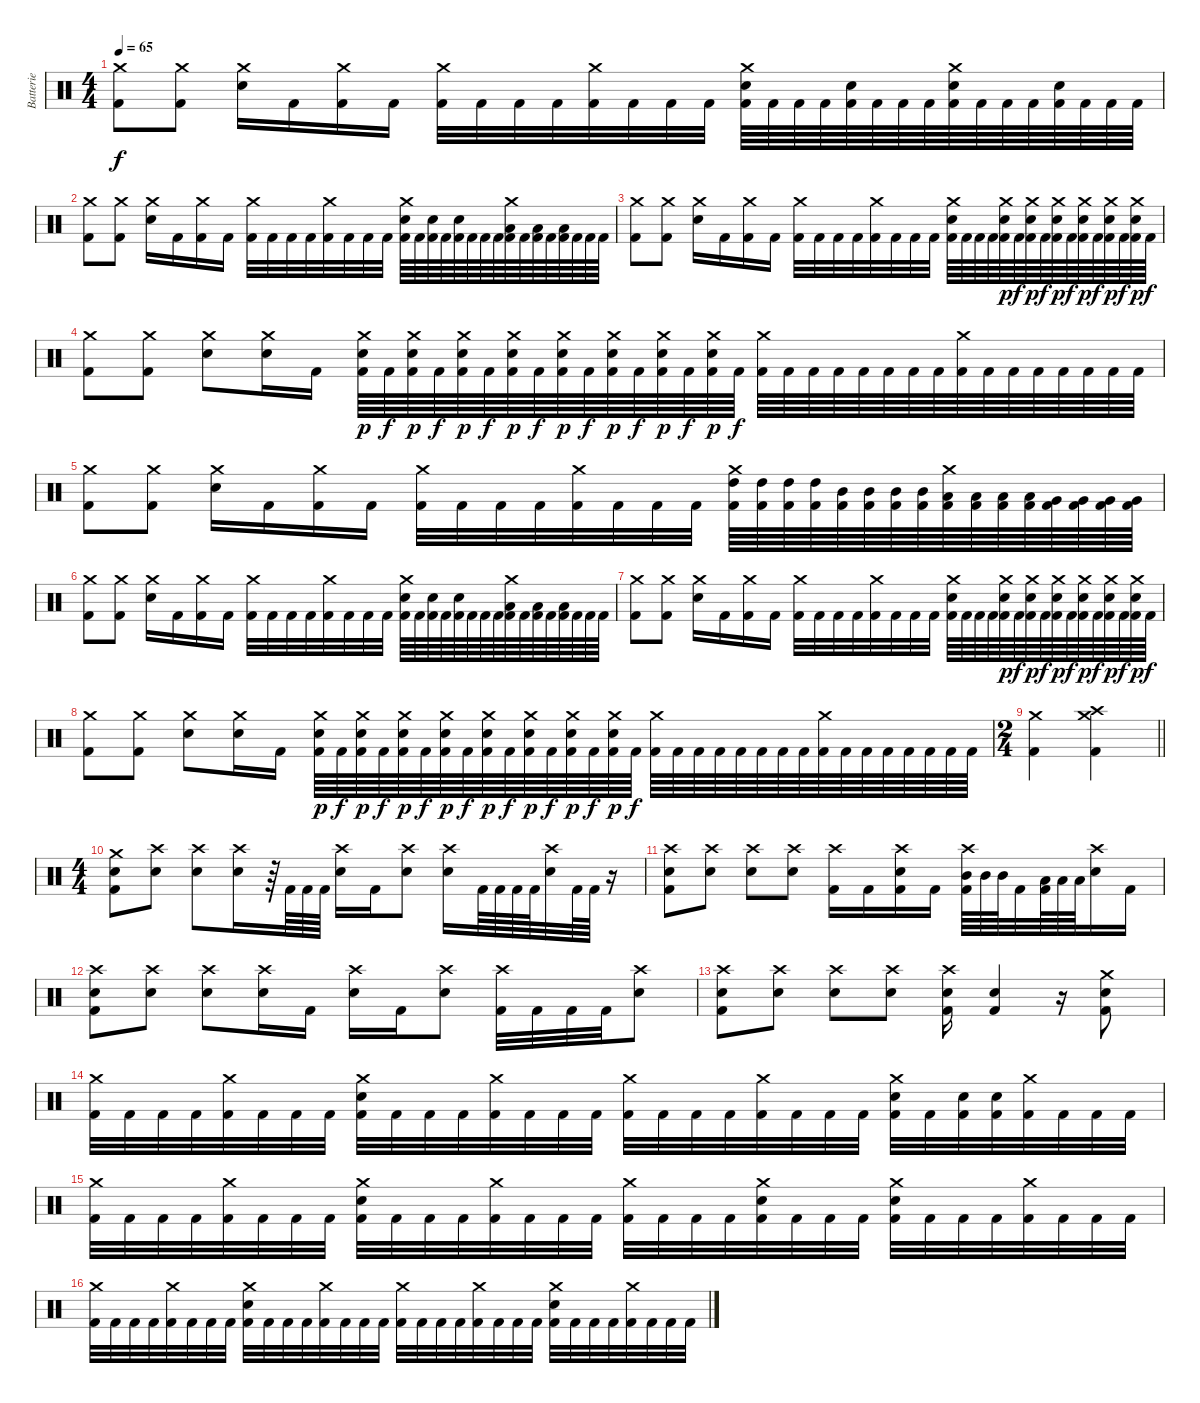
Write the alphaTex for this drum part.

\track ("Batterie" "Batterie") {instrument percussion}
\staff {score}
\articulation defaults
\ts (4 4)
\section ("" "")
\tempo 65
\clef neutral
\ks c
("Crash medium (hit)" "Kick (hit) 2").8{dy f} ("Crash medium (hit)" "Kick (hit) 2").8 ("Crash medium (hit)" "Electric Snare (hit)").16 "Kick (hit) 2".16 ("Crash medium (hit)" "Kick (hit) 2").16 "Kick (hit) 2".16 ("Crash medium (hit)" "Kick (hit) 2").32 "Kick (hit) 2".32 "Kick (hit) 2".32 "Kick (hit) 2".32 ("Crash medium (hit)" "Kick (hit) 2").32 "Kick (hit) 2".32 "Kick (hit) 2".32 "Kick (hit) 2".32 ("Crash medium (hit)" "Electric Snare (hit)" "Kick (hit) 2").64 "Kick (hit) 2".64 "Kick (hit) 2".64 "Kick (hit) 2".64 ("Electric Snare (hit)" "Kick (hit) 2").64 "Kick (hit) 2".64 "Kick (hit) 2".64 "Kick (hit) 2".64 ("Crash medium (hit)" "Electric Snare (hit)" "Kick (hit) 2").64 "Kick (hit) 2".64 "Kick (hit) 2".64 "Kick (hit) 2".64 ("Electric Snare (hit)" "Kick (hit) 2").64 "Kick (hit) 2".64 "Kick (hit) 2".64 "Kick (hit) 2".64 |
("Crash medium (hit)" "Kick (hit) 2").8 ("Crash medium (hit)" "Kick (hit) 2").8 ("Crash medium (hit)" "Electric Snare (hit)").16 "Kick (hit) 2".16 ("Crash medium (hit)" "Kick (hit) 2").16 "Kick (hit) 2".16 ("Crash medium (hit)" "Kick (hit) 2").32 "Kick (hit) 2".32 "Kick (hit) 2".32 "Kick (hit) 2".32 ("Crash medium (hit)" "Kick (hit) 2").32 "Kick (hit) 2".32 "Kick (hit) 2".32 "Kick (hit) 2".32 ("Crash medium (hit)" "Electric Snare (hit)" "Kick (hit) 2").64 "Kick (hit) 2".64 ("Electric Snare (hit)" "Kick (hit) 2").64 "Kick (hit) 2".64 ("Electric Snare (hit)" "Kick (hit) 2").64 "Kick (hit) 2".64 "Kick (hit) 2".64 "Kick (hit) 2".64 ("Crash medium (hit)" "Low Tom (hit)" "Kick (hit) 2").64 "Kick (hit) 2".64 ("Low Tom (hit)" "Kick (hit) 2").64 "Kick (hit) 2".64 ("Low Tom (hit)" "Kick (hit) 2").64 "Kick (hit) 2".64 "Kick (hit) 2".64 "Kick (hit) 2".64 |
("Crash medium (hit)" "Kick (hit) 2").8 ("Crash medium (hit)" "Kick (hit) 2").8 ("Crash medium (hit)" "Electric Snare (hit)").16 "Kick (hit) 2".16 ("Crash medium (hit)" "Kick (hit) 2").16 "Kick (hit) 2".16 ("Crash medium (hit)" "Kick (hit) 2").32 "Kick (hit) 2".32 "Kick (hit) 2".32 "Kick (hit) 2".32 ("Crash medium (hit)" "Kick (hit) 2").32 "Kick (hit) 2".32 "Kick (hit) 2".32 "Kick (hit) 2".32 ("Crash medium (hit)" "Electric Snare (hit)" "Kick (hit) 2").64 "Kick (hit) 2".64 "Kick (hit) 2".64 "Kick (hit) 2".64 ("Crash medium (hit)" "Electric Snare (hit)" "Kick (hit) 2").64{dy p} "Kick (hit) 2".64{dy f} ("Crash medium (hit)" "Electric Snare (hit)" "Kick (hit) 2").64{dy p} "Kick (hit) 2".64{dy f} ("Crash medium (hit)" "Electric Snare (hit)" "Kick (hit) 2").64{dy p} "Kick (hit) 2".64{dy f} ("Crash medium (hit)" "Electric Snare (hit)" "Kick (hit) 2").64{dy p} "Kick (hit) 2".64{dy f} ("Crash medium (hit)" "Electric Snare (hit)" "Kick (hit) 2").64{dy p} "Kick (hit) 2".64{dy f} ("Crash medium (hit)" "Electric Snare (hit)" "Kick (hit) 2").64{dy p} "Kick (hit) 2".64{dy f} |
("Crash medium (hit)" "Kick (hit) 2").8 ("Crash medium (hit)" "Kick (hit) 2").8 ("Crash medium (hit)" "Electric Snare (hit)").8 ("Crash medium (hit)" "Electric Snare (hit)").16 "Kick (hit) 2".16 ("Crash medium (hit)" "Electric Snare (hit)" "Kick (hit) 2").64{dy p} "Kick (hit) 2".64{dy f} ("Crash medium (hit)" "Electric Snare (hit)" "Kick (hit) 2").64{dy p} "Kick (hit) 2".64{dy f} ("Crash medium (hit)" "Electric Snare (hit)" "Kick (hit) 2").64{dy p} "Kick (hit) 2".64{dy f} ("Crash medium (hit)" "Electric Snare (hit)" "Kick (hit) 2").64{dy p} "Kick (hit) 2".64{dy f} ("Crash medium (hit)" "Electric Snare (hit)" "Kick (hit) 2").64{dy p} "Kick (hit) 2".64{dy f} ("Crash medium (hit)" "Electric Snare (hit)" "Kick (hit) 2").64{dy p} "Kick (hit) 2".64{dy f} ("Crash medium (hit)" "Electric Snare (hit)" "Kick (hit) 2").64{dy p} "Kick (hit) 2".64{dy f} ("Crash medium (hit)" "Electric Snare (hit)" "Kick (hit) 2").64{dy p} "Kick (hit) 2".64{dy f} ("Crash medium (hit)" "Kick (hit) 2").64 "Kick (hit) 2".64 "Kick (hit) 2".64 "Kick (hit) 2".64 "Kick (hit) 2".64 "Kick (hit) 2".64 "Kick (hit) 2".64 "Kick (hit) 2".64 ("Crash medium (hit)" "Kick (hit) 2").64 "Kick (hit) 2".64 "Kick (hit) 2".64 "Kick (hit) 2".64 "Kick (hit) 2".64 "Kick (hit) 2".64 "Kick (hit) 2".64 "Kick (hit) 2".64 |
("Crash medium (hit)" "Kick (hit) 2").8 ("Crash medium (hit)" "Kick (hit) 2").8 ("Crash medium (hit)" "Electric Snare (hit)").16 "Kick (hit) 2".16 ("Crash medium (hit)" "Kick (hit) 2").16 "Kick (hit) 2".16 ("Crash medium (hit)" "Kick (hit) 2").32 "Kick (hit) 2".32 "Kick (hit) 2".32 "Kick (hit) 2".32 ("Crash medium (hit)" "Kick (hit) 2").32 "Kick (hit) 2".32 "Kick (hit) 2".32 "Kick (hit) 2".32 ("Crash medium (hit)" "High Tom (hit)" "Kick (hit) 2").64 ("High Tom (hit)" "Kick (hit) 2").64 ("High Tom (hit)" "Kick (hit) 2").64 ("High Tom (hit)" "Kick (hit) 2").64 ("Mid Tom (hit)" "Kick (hit) 2").64 ("Mid Tom (hit)" "Kick (hit) 2").64 ("Mid Tom (hit)" "Kick (hit) 2").64 ("Mid Tom (hit)" "Kick (hit) 2").64 ("Crash medium (hit)" "Low Tom (hit)" "Kick (hit) 2").64 ("Low Tom (hit)" "Kick (hit) 2").64 ("Low Tom (hit)" "Kick (hit) 2").64 ("Low Tom (hit)" "Kick (hit) 2").64 ("Very Low Tom (hit)" "Kick (hit) 2").64 ("Very Low Tom (hit)" "Kick (hit) 2").64 ("Very Low Tom (hit)" "Kick (hit) 2").64 ("Very Low Tom (hit)" "Kick (hit) 2").64 |
("Crash medium (hit)" "Kick (hit) 2").8 ("Crash medium (hit)" "Kick (hit) 2").8 ("Crash medium (hit)" "Electric Snare (hit)").16 "Kick (hit) 2".16 ("Crash medium (hit)" "Kick (hit) 2").16 "Kick (hit) 2".16 ("Crash medium (hit)" "Kick (hit) 2").32 "Kick (hit) 2".32 "Kick (hit) 2".32 "Kick (hit) 2".32 ("Crash medium (hit)" "Kick (hit) 2").32 "Kick (hit) 2".32 "Kick (hit) 2".32 "Kick (hit) 2".32 ("Crash medium (hit)" "Electric Snare (hit)" "Kick (hit) 2").64 "Kick (hit) 2".64 ("Electric Snare (hit)" "Kick (hit) 2").64 "Kick (hit) 2".64 ("Electric Snare (hit)" "Kick (hit) 2").64 "Kick (hit) 2".64 "Kick (hit) 2".64 "Kick (hit) 2".64 ("Crash medium (hit)" "Low Tom (hit)" "Kick (hit) 2").64 "Kick (hit) 2".64 ("Low Tom (hit)" "Kick (hit) 2").64 "Kick (hit) 2".64 ("Low Tom (hit)" "Kick (hit) 2").64 "Kick (hit) 2".64 "Kick (hit) 2".64 "Kick (hit) 2".64 |
("Crash medium (hit)" "Kick (hit) 2").8 ("Crash medium (hit)" "Kick (hit) 2").8 ("Crash medium (hit)" "Electric Snare (hit)").16 "Kick (hit) 2".16 ("Crash medium (hit)" "Kick (hit) 2").16 "Kick (hit) 2".16 ("Crash medium (hit)" "Kick (hit) 2").32 "Kick (hit) 2".32 "Kick (hit) 2".32 "Kick (hit) 2".32 ("Crash medium (hit)" "Kick (hit) 2").32 "Kick (hit) 2".32 "Kick (hit) 2".32 "Kick (hit) 2".32 ("Crash medium (hit)" "Electric Snare (hit)" "Kick (hit) 2").64 "Kick (hit) 2".64 "Kick (hit) 2".64 "Kick (hit) 2".64 ("Crash medium (hit)" "Electric Snare (hit)" "Kick (hit) 2").64{dy p} "Kick (hit) 2".64{dy f} ("Crash medium (hit)" "Electric Snare (hit)" "Kick (hit) 2").64{dy p} "Kick (hit) 2".64{dy f} ("Crash medium (hit)" "Electric Snare (hit)" "Kick (hit) 2").64{dy p} "Kick (hit) 2".64{dy f} ("Crash medium (hit)" "Electric Snare (hit)" "Kick (hit) 2").64{dy p} "Kick (hit) 2".64{dy f} ("Crash medium (hit)" "Electric Snare (hit)" "Kick (hit) 2").64{dy p} "Kick (hit) 2".64{dy f} ("Crash medium (hit)" "Electric Snare (hit)" "Kick (hit) 2").64{dy p} "Kick (hit) 2".64{dy f} |
("Crash medium (hit)" "Kick (hit) 2").8 ("Crash medium (hit)" "Kick (hit) 2").8 ("Crash medium (hit)" "Electric Snare (hit)").8 ("Crash medium (hit)" "Electric Snare (hit)").16 "Kick (hit) 2".16 ("Crash medium (hit)" "Electric Snare (hit)" "Kick (hit) 2").64{dy p} "Kick (hit) 2".64{dy f} ("Crash medium (hit)" "Electric Snare (hit)" "Kick (hit) 2").64{dy p} "Kick (hit) 2".64{dy f} ("Crash medium (hit)" "Electric Snare (hit)" "Kick (hit) 2").64{dy p} "Kick (hit) 2".64{dy f} ("Crash medium (hit)" "Electric Snare (hit)" "Kick (hit) 2").64{dy p} "Kick (hit) 2".64{dy f} ("Crash medium (hit)" "Electric Snare (hit)" "Kick (hit) 2").64{dy p} "Kick (hit) 2".64{dy f} ("Crash medium (hit)" "Electric Snare (hit)" "Kick (hit) 2").64{dy p} "Kick (hit) 2".64{dy f} ("Crash medium (hit)" "Electric Snare (hit)" "Kick (hit) 2").64{dy p} "Kick (hit) 2".64{dy f} ("Crash medium (hit)" "Electric Snare (hit)" "Kick (hit) 2").64{dy p} "Kick (hit) 2".64{dy f} ("Crash medium (hit)" "Kick (hit) 2").64 "Kick (hit) 2".64 "Kick (hit) 2".64 "Kick (hit) 2".64 "Kick (hit) 2".64 "Kick (hit) 2".64 "Kick (hit) 2".64 "Kick (hit) 2".64 ("Crash medium (hit)" "Kick (hit) 2").64 "Kick (hit) 2".64 "Kick (hit) 2".64 "Kick (hit) 2".64 "Kick (hit) 2".64 "Kick (hit) 2".64 "Kick (hit) 2".64 "Kick (hit) 2".64 |
\ts (2 4)
\barLineRight lightlight
("Crash medium (hit)" "Kick (hit) 2").4 ("Crash medium (hit)" "Crash high (hit)" "Kick (hit) 2").4 |
\ts (4 4)
\section ("" "")
("Crash medium (hit)" "Electric Snare (hit)" "Kick (hit) 2").8 ("Crash high (hit)" "Electric Snare (hit)").8 ("Crash high (hit)" "Electric Snare (hit)").8 ("Crash high (hit)" "Electric Snare (hit)").16 r.64 "Kick (hit) 2".64 "Kick (hit) 2".64 "Kick (hit) 2".64 ("Crash high (hit)" "Electric Snare (hit)").16 "Kick (hit) 2".16 ("Crash high (hit)" "Electric Snare (hit)").8 ("Crash high (hit)" "Electric Snare (hit)").16 "Kick (hit) 2".64 "Kick (hit) 2".64 "Kick (hit) 2".64 "Kick (hit) 2".64 ("Crash high (hit)" "Electric Snare (hit)").32 "Kick (hit) 2".64 "Kick (hit) 2".64 r.16 |
("Crash high (hit)" "Electric Snare (hit)" "Kick (hit) 2").8 ("Crash high (hit)" "Electric Snare (hit)").8 ("Crash high (hit)" "Electric Snare (hit)").8 ("Crash high (hit)" "Electric Snare (hit)").8 ("Crash high (hit)" "Kick (hit) 2").16 "Kick (hit) 2".16 ("Crash high (hit)" "Electric Snare (hit)" "Kick (hit) 2").16 "Kick (hit) 2".16 ("Crash high (hit)" "Mid Tom (hit)" "Kick (hit) 2").64 "Mid Tom (hit)".64 "Mid Tom (hit)".64 "Kick (hit) 2".32 ("Low Tom (hit)" "Kick (hit) 2").64 "Low Tom (hit)".64 "Low Tom (hit)".64 ("Crash high (hit)" "Electric Snare (hit)").16 "Kick (hit) 2".16 |
("Crash high (hit)" "Electric Snare (hit)" "Kick (hit) 2").8 ("Crash high (hit)" "Electric Snare (hit)").8 ("Crash high (hit)" "Electric Snare (hit)").8 ("Crash high (hit)" "Electric Snare (hit)").16 "Kick (hit) 2".16 ("Crash high (hit)" "Electric Snare (hit)").16 "Kick (hit) 2".16 ("Crash high (hit)" "Electric Snare (hit)").8 ("Crash high (hit)" "Kick (hit) 2").32 "Kick (hit) 2".32 "Kick (hit) 2".32 "Kick (hit) 2".32 ("Crash high (hit)" "Electric Snare (hit)").8 |
("Crash high (hit)" "Electric Snare (hit)" "Kick (hit) 2").8 ("Crash high (hit)" "Electric Snare (hit)").8 ("Crash high (hit)" "Electric Snare (hit)").8 ("Crash high (hit)" "Electric Snare (hit)").8 ("Crash high (hit)" "Electric Snare (hit)" "Kick (hit) 2").16 ("Electric Snare (hit)" "Kick (hit) 2").4 r.16 ("Crash medium (hit)" "Electric Snare (hit)" "Kick (hit) 2").8 |
("Crash medium (hit)" "Kick (hit) 2").32 "Kick (hit) 2".32 "Kick (hit) 2".32 "Kick (hit) 2".32 ("Crash medium (hit)" "Kick (hit) 2").32 "Kick (hit) 2".32 "Kick (hit) 2".32 "Kick (hit) 2".32 ("Crash medium (hit)" "Electric Snare (hit)" "Kick (hit) 2").32 "Kick (hit) 2".32 "Kick (hit) 2".32 "Kick (hit) 2".32 ("Crash medium (hit)" "Kick (hit) 2").32 "Kick (hit) 2".32 "Kick (hit) 2".32 "Kick (hit) 2".32 ("Crash medium (hit)" "Kick (hit) 2").32 "Kick (hit) 2".32 "Kick (hit) 2".32 "Kick (hit) 2".32 ("Crash medium (hit)" "Kick (hit) 2").32 "Kick (hit) 2".32 "Kick (hit) 2".32 "Kick (hit) 2".32 ("Crash medium (hit)" "Electric Snare (hit)" "Kick (hit) 2").32 "Kick (hit) 2".32 ("Electric Snare (hit)" "Kick (hit) 2").32 ("Electric Snare (hit)" "Kick (hit) 2").32 ("Crash medium (hit)" "Kick (hit) 2").32 "Kick (hit) 2".32 "Kick (hit) 2".32 "Kick (hit) 2".32 |
("Crash medium (hit)" "Kick (hit) 2").32 "Kick (hit) 2".32 "Kick (hit) 2".32 "Kick (hit) 2".32 ("Crash medium (hit)" "Kick (hit) 2").32 "Kick (hit) 2".32 "Kick (hit) 2".32 "Kick (hit) 2".32 ("Crash medium (hit)" "Electric Snare (hit)" "Kick (hit) 2").32 "Kick (hit) 2".32 "Kick (hit) 2".32 "Kick (hit) 2".32 ("Crash medium (hit)" "Kick (hit) 2").32 "Kick (hit) 2".32 "Kick (hit) 2".32 "Kick (hit) 2".32 ("Crash medium (hit)" "Kick (hit) 2").32 "Kick (hit) 2".32 "Kick (hit) 2".32 "Kick (hit) 2".32 ("Crash medium (hit)" "Electric Snare (hit)" "Kick (hit) 2").32 "Kick (hit) 2".32 "Kick (hit) 2".32 "Kick (hit) 2".32 ("Crash medium (hit)" "Electric Snare (hit)" "Kick (hit) 2").32 "Kick (hit) 2".32 "Kick (hit) 2".32 "Kick (hit) 2".32 ("Crash medium (hit)" "Kick (hit) 2").32 "Kick (hit) 2".32 "Kick (hit) 2".32 "Kick (hit) 2".32 |
("Crash medium (hit)" "Kick (hit) 2").32 "Kick (hit) 2".32 "Kick (hit) 2".32 "Kick (hit) 2".32 ("Crash medium (hit)" "Kick (hit) 2").32 "Kick (hit) 2".32 "Kick (hit) 2".32 "Kick (hit) 2".32 ("Crash medium (hit)" "Electric Snare (hit)" "Kick (hit) 2").32 "Kick (hit) 2".32 "Kick (hit) 2".32 "Kick (hit) 2".32 ("Crash medium (hit)" "Kick (hit) 2").32 "Kick (hit) 2".32 "Kick (hit) 2".32 "Kick (hit) 2".32 ("Crash medium (hit)" "Kick (hit) 2").32 "Kick (hit) 2".32 "Kick (hit) 2".32 "Kick (hit) 2".32 ("Crash medium (hit)" "Kick (hit) 2").32 "Kick (hit) 2".32 "Kick (hit) 2".32 "Kick (hit) 2".32 ("Crash medium (hit)" "Electric Snare (hit)" "Kick (hit) 2").32 "Kick (hit) 2".32 "Kick (hit) 2".32 "Kick (hit) 2".32 ("Crash medium (hit)" "Kick (hit) 2").32 "Kick (hit) 2".32 "Kick (hit) 2".32 "Kick (hit) 2".32
